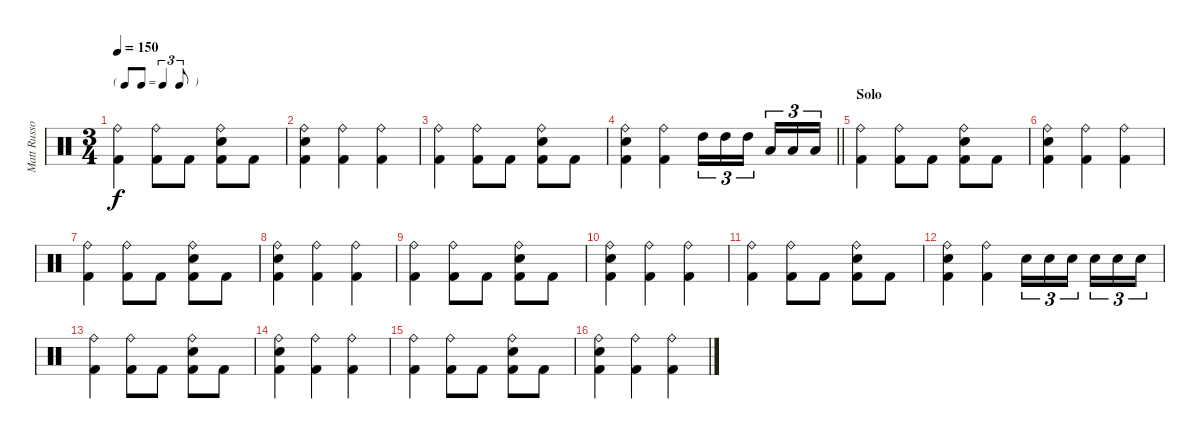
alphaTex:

\track ("Matt Russo" "Matt Russo") {instrument percussion}
\staff {score}
\articulation defaults
\ts (3 4)
\tf triplet8th
\tempo 150
\clef neutral
\ks c
("Ride (bell)" "Kick (hit) 2").4{dy f} ("Ride (bell)" "Kick (hit) 2").8 "Kick (hit) 2".8 ("Ride (bell)" "Electric Snare (hit)" "Kick (hit) 2").8 "Kick (hit) 2".8 |
("Ride (bell)" "Electric Snare (hit)" "Kick (hit) 2").4 ("Ride (bell)" "Kick (hit) 2").4 ("Ride (bell)" "Kick (hit) 2").4 |
("Ride (bell)" "Kick (hit) 2").4 ("Ride (bell)" "Kick (hit) 2").8 "Kick (hit) 2".8 ("Ride (bell)" "Electric Snare (hit)" "Kick (hit) 2").8 "Kick (hit) 2".8 |
\barLineRight lightlight
("Ride (bell)" "Electric Snare (hit)" "Kick (hit) 2").4 ("Ride (bell)" "Kick (hit) 2").4 "High Tom (hit)".16{tu (3 2)} "High Tom (hit)".16{tu (3 2)} "High Tom (hit)".16{tu (3 2) beam splitsecondary} "Low Tom (hit)".16{tu (3 2)} "Low Tom (hit)".16{tu (3 2)} "Low Tom (hit)".16{tu (3 2)} |
\section ("" "Solo")
("Ride (bell)" "Kick (hit) 2").4 ("Ride (bell)" "Kick (hit) 2").8 "Kick (hit) 2".8 ("Ride (bell)" "Electric Snare (hit)" "Kick (hit) 2").8 "Kick (hit) 2".8 |
("Ride (bell)" "Electric Snare (hit)" "Kick (hit) 2").4 ("Ride (bell)" "Kick (hit) 2").4 ("Ride (bell)" "Kick (hit) 2").4 |
("Ride (bell)" "Kick (hit) 2").4 ("Ride (bell)" "Kick (hit) 2").8 "Kick (hit) 2".8 ("Ride (bell)" "Electric Snare (hit)" "Kick (hit) 2").8 "Kick (hit) 2".8 |
("Ride (bell)" "Electric Snare (hit)" "Kick (hit) 2").4 ("Ride (bell)" "Kick (hit) 2").4 ("Ride (bell)" "Kick (hit) 2").4 |
("Ride (bell)" "Kick (hit) 2").4 ("Ride (bell)" "Kick (hit) 2").8 "Kick (hit) 2".8 ("Ride (bell)" "Electric Snare (hit)" "Kick (hit) 2").8 "Kick (hit) 2".8 |
("Ride (bell)" "Electric Snare (hit)" "Kick (hit) 2").4 ("Ride (bell)" "Kick (hit) 2").4 ("Ride (bell)" "Kick (hit) 2").4 |
("Ride (bell)" "Kick (hit) 2").4 ("Ride (bell)" "Kick (hit) 2").8 "Kick (hit) 2".8 ("Ride (bell)" "Electric Snare (hit)" "Kick (hit) 2").8 "Kick (hit) 2".8 |
("Ride (bell)" "Electric Snare (hit)" "Kick (hit) 2").4 ("Ride (bell)" "Kick (hit) 2").4 "Electric Snare (hit)".16{tu (3 2)} "Electric Snare (hit)".16{tu (3 2)} "Electric Snare (hit)".16{tu (3 2) beam splitsecondary} "Electric Snare (hit)".16{tu (3 2)} "Electric Snare (hit)".16{tu (3 2)} "Electric Snare (hit)".16{tu (3 2)} |
("Ride (bell)" "Kick (hit) 2").4 ("Ride (bell)" "Kick (hit) 2").8 "Kick (hit) 2".8 ("Ride (bell)" "Electric Snare (hit)" "Kick (hit) 2").8 "Kick (hit) 2".8 |
("Ride (bell)" "Electric Snare (hit)" "Kick (hit) 2").4 ("Ride (bell)" "Kick (hit) 2").4 ("Ride (bell)" "Kick (hit) 2").4 |
("Ride (bell)" "Kick (hit) 2").4 ("Ride (bell)" "Kick (hit) 2").8 "Kick (hit) 2".8 ("Ride (bell)" "Electric Snare (hit)" "Kick (hit) 2").8 "Kick (hit) 2".8 |
("Ride (bell)" "Electric Snare (hit)" "Kick (hit) 2").4 ("Ride (bell)" "Kick (hit) 2").4 ("Ride (bell)" "Kick (hit) 2").4
